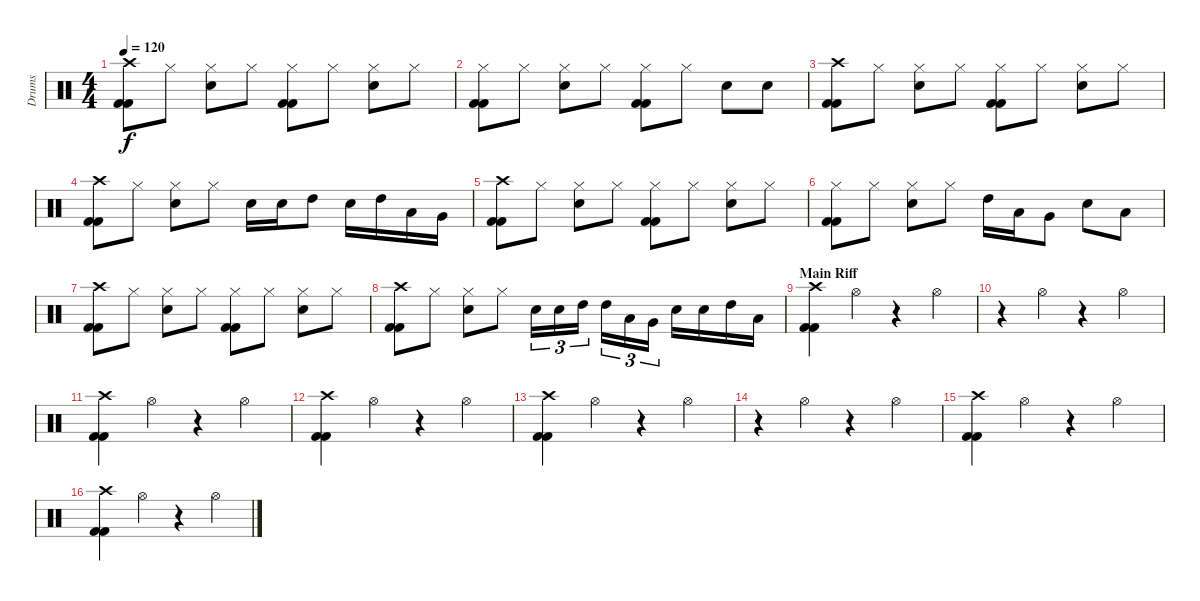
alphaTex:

\track ("Drums" "Drums") {instrument percussion}
\staff {score}
\articulation defaults
\ts (4 4)
\tempo 120
\clef neutral
\ks c
("Crash high (hit)" "Kick (hit) 2" "Kick (hit) 2").8{dy f} "Hi-Hat (closed)".8 ("Electric Snare (hit)" "Hi-Hat (closed)").8 "Hi-Hat (closed)".8 ("Kick (hit) 2" "Kick (hit) 2" "Hi-Hat (closed)").8 "Hi-Hat (closed)".8 ("Hi-Hat (closed)" "Electric Snare (hit)").8 "Hi-Hat (closed)".8 |
("Hi-Hat (closed)" "Kick (hit) 2" "Kick (hit) 2").8 "Hi-Hat (closed)".8 ("Electric Snare (hit)" "Hi-Hat (closed)").8 "Hi-Hat (closed)".8 ("Kick (hit) 2" "Kick (hit) 2" "Hi-Hat (closed)").8 "Hi-Hat (closed)".8 "Electric Snare (hit)".8 "Electric Snare (hit)".8 |
("Crash high (hit)" "Kick (hit) 2" "Kick (hit) 2").8 "Hi-Hat (closed)".8 ("Electric Snare (hit)" "Hi-Hat (closed)").8 "Hi-Hat (closed)".8 ("Kick (hit) 2" "Kick (hit) 2" "Hi-Hat (closed)").8 "Hi-Hat (closed)".8 ("Hi-Hat (closed)" "Electric Snare (hit)").8 "Hi-Hat (closed)".8 |
("Crash high (hit)" "Kick (hit) 2" "Kick (hit) 2").8 "Hi-Hat (closed)".8 ("Electric Snare (hit)" "Hi-Hat (closed)").8 "Hi-Hat (closed)".8 "Electric Snare (hit)".16 "Electric Snare (hit)".16 "High Tom (hit)".8 "Electric Snare (hit)".16 "High Tom (hit)".16 "Low Tom (hit)".16 "Very Low Tom (hit)".16 |
("Crash high (hit)" "Kick (hit) 2" "Kick (hit) 2").8 "Hi-Hat (closed)".8 ("Electric Snare (hit)" "Hi-Hat (closed)").8 "Hi-Hat (closed)".8 ("Kick (hit) 2" "Kick (hit) 2" "Hi-Hat (closed)").8 "Hi-Hat (closed)".8 ("Hi-Hat (closed)" "Electric Snare (hit)").8 "Hi-Hat (closed)".8 |
("Hi-Hat (closed)" "Kick (hit) 2" "Kick (hit) 2").8 "Hi-Hat (closed)".8 ("Electric Snare (hit)" "Hi-Hat (closed)").8 "Hi-Hat (closed)".8 "High Tom (hit)".16 "Low Tom (hit)".16 "Very Low Tom (hit)".8 "Electric Snare (hit)".8 "Low Tom (hit)".8 |
("Crash high (hit)" "Kick (hit) 2" "Kick (hit) 2").8 "Hi-Hat (closed)".8 ("Electric Snare (hit)" "Hi-Hat (closed)").8 "Hi-Hat (closed)".8 ("Kick (hit) 2" "Kick (hit) 2" "Hi-Hat (closed)").8 "Hi-Hat (closed)".8 ("Hi-Hat (closed)" "Electric Snare (hit)").8 "Hi-Hat (closed)".8 |
("Crash high (hit)" "Kick (hit) 2" "Kick (hit) 2").8 "Hi-Hat (closed)".8 ("Electric Snare (hit)" "Hi-Hat (closed)").8 "Hi-Hat (closed)".8 "Electric Snare (hit)".16{tu (3 2)} "Electric Snare (hit)".16{tu (3 2)} "High Tom (hit)".16{tu (3 2)} "High Tom (hit)".16{tu (3 2)} "Low Tom (hit)".16{tu (3 2)} "Very Low Tom (hit)".16{tu (3 2)} "Electric Snare (hit)".16 "Electric Snare (hit)".16 "High Tom (hit)".16 "Low Tom (hit)".16 |
\section ("" "Main Riff")
("Crash high (hit)" "Kick (hit) 2" "Kick (hit) 2").4 "Hi-Hat (open)".4 r.4 "Hi-Hat (open)".4 |
r.4 "Hi-Hat (open)".4 r.4 "Hi-Hat (open)".4 |
("Crash high (hit)" "Kick (hit) 2" "Kick (hit) 2").4 "Hi-Hat (open)".4 r.4 "Hi-Hat (open)".4 |
("Crash high (hit)" "Kick (hit) 2" "Kick (hit) 2").4 "Hi-Hat (open)".4 r.4 "Hi-Hat (open)".4 |
("Crash high (hit)" "Kick (hit) 2" "Kick (hit) 2").4 "Hi-Hat (open)".4 r.4 "Hi-Hat (open)".4 |
r.4 "Hi-Hat (open)".4 r.4 "Hi-Hat (open)".4 |
("Crash high (hit)" "Kick (hit) 2" "Kick (hit) 2").4 "Hi-Hat (open)".4 r.4 "Hi-Hat (open)".4 |
("Crash high (hit)" "Kick (hit) 2" "Kick (hit) 2").4 "Hi-Hat (open)".4 r.4 "Hi-Hat (open)".4
